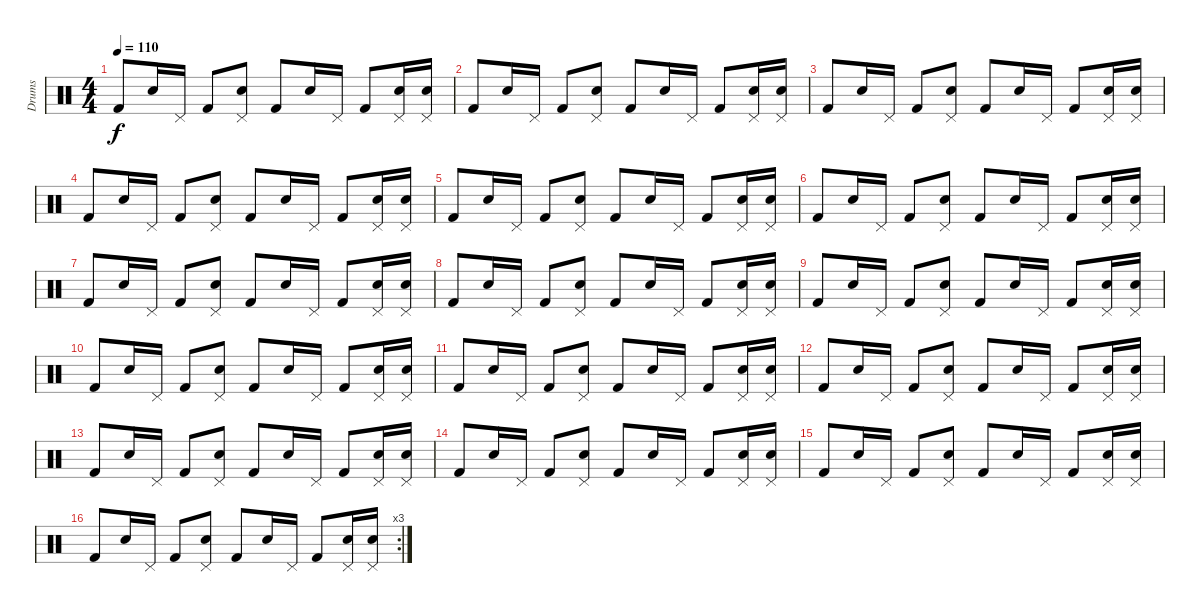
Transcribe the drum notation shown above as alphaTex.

\track ("Drums" "Drums") {instrument percussion}
\staff {score}
\articulation defaults
\ts (4 4)
\tempo 110
\clef neutral
\ks c "Kick (hit) 2".8{dy f} "Snare (hit) 2".16 "Pedal Hi-Hat (hit)".16 "Kick (hit) 2".8
("Pedal Hi-Hat (hit)" "Snare (hit) 2").8 "Kick (hit) 2".8 "Snare (hit) 2".16 "Pedal Hi-Hat (hit)".16 "Kick (hit) 2".8 ("Pedal Hi-Hat (hit)" "Snare (hit) 2").16 ("Pedal Hi-Hat (hit)" "Snare (hit) 2").16 |
"Kick (hit) 2".8 "Snare (hit) 2".16 "Pedal Hi-Hat (hit)".16 "Kick (hit) 2".8 ("Pedal Hi-Hat (hit)" "Snare (hit) 2").8 "Kick (hit) 2".8 "Snare (hit) 2".16 "Pedal Hi-Hat (hit)".16 "Kick (hit) 2".8 ("Pedal Hi-Hat (hit)" "Snare (hit) 2").16 ("Pedal Hi-Hat (hit)" "Snare (hit) 2").16 |
"Kick (hit) 2".8 "Snare (hit) 2".16 "Pedal Hi-Hat (hit)".16 "Kick (hit) 2".8 ("Pedal Hi-Hat (hit)" "Snare (hit) 2").8 "Kick (hit) 2".8 "Snare (hit) 2".16 "Pedal Hi-Hat (hit)".16 "Kick (hit) 2".8 ("Pedal Hi-Hat (hit)" "Snare (hit) 2").16 ("Pedal Hi-Hat (hit)" "Snare (hit) 2").16 |
"Kick (hit) 2".8 "Snare (hit) 2".16 "Pedal Hi-Hat (hit)".16 "Kick (hit) 2".8 ("Pedal Hi-Hat (hit)" "Snare (hit) 2").8 "Kick (hit) 2".8 "Snare (hit) 2".16 "Pedal Hi-Hat (hit)".16 "Kick (hit) 2".8 ("Pedal Hi-Hat (hit)" "Snare (hit) 2").16 ("Pedal Hi-Hat (hit)" "Snare (hit) 2").16 |
"Kick (hit) 2".8 "Snare (hit) 2".16 "Pedal Hi-Hat (hit)".16 "Kick (hit) 2".8 ("Pedal Hi-Hat (hit)" "Snare (hit) 2").8 "Kick (hit) 2".8 "Snare (hit) 2".16 "Pedal Hi-Hat (hit)".16 "Kick (hit) 2".8 ("Pedal Hi-Hat (hit)" "Snare (hit) 2").16 ("Pedal Hi-Hat (hit)" "Snare (hit) 2").16 |
"Kick (hit) 2".8 "Snare (hit) 2".16 "Pedal Hi-Hat (hit)".16 "Kick (hit) 2".8 ("Pedal Hi-Hat (hit)" "Snare (hit) 2").8 "Kick (hit) 2".8 "Snare (hit) 2".16 "Pedal Hi-Hat (hit)".16 "Kick (hit) 2".8 ("Pedal Hi-Hat (hit)" "Snare (hit) 2").16 ("Pedal Hi-Hat (hit)" "Snare (hit) 2").16 |
"Kick (hit) 2".8 "Snare (hit) 2".16 "Pedal Hi-Hat (hit)".16 "Kick (hit) 2".8 ("Pedal Hi-Hat (hit)" "Snare (hit) 2").8 "Kick (hit) 2".8 "Snare (hit) 2".16 "Pedal Hi-Hat (hit)".16 "Kick (hit) 2".8 ("Pedal Hi-Hat (hit)" "Snare (hit) 2").16 ("Pedal Hi-Hat (hit)" "Snare (hit) 2").16 |
"Kick (hit) 2".8 "Snare (hit) 2".16 "Pedal Hi-Hat (hit)".16 "Kick (hit) 2".8 ("Pedal Hi-Hat (hit)" "Snare (hit) 2").8 "Kick (hit) 2".8 "Snare (hit) 2".16 "Pedal Hi-Hat (hit)".16 "Kick (hit) 2".8 ("Pedal Hi-Hat (hit)" "Snare (hit) 2").16 ("Pedal Hi-Hat (hit)" "Snare (hit) 2").16 |
"Kick (hit) 2".8 "Snare (hit) 2".16 "Pedal Hi-Hat (hit)".16 "Kick (hit) 2".8 ("Pedal Hi-Hat (hit)" "Snare (hit) 2").8 "Kick (hit) 2".8 "Snare (hit) 2".16 "Pedal Hi-Hat (hit)".16 "Kick (hit) 2".8 ("Pedal Hi-Hat (hit)" "Snare (hit) 2").16 ("Pedal Hi-Hat (hit)" "Snare (hit) 2").16 |
"Kick (hit) 2".8 "Snare (hit) 2".16 "Pedal Hi-Hat (hit)".16 "Kick (hit) 2".8 ("Pedal Hi-Hat (hit)" "Snare (hit) 2").8 "Kick (hit) 2".8 "Snare (hit) 2".16 "Pedal Hi-Hat (hit)".16 "Kick (hit) 2".8 ("Pedal Hi-Hat (hit)" "Snare (hit) 2").16 ("Pedal Hi-Hat (hit)" "Snare (hit) 2").16 |
"Kick (hit) 2".8 "Snare (hit) 2".16 "Pedal Hi-Hat (hit)".16 "Kick (hit) 2".8 ("Pedal Hi-Hat (hit)" "Snare (hit) 2").8 "Kick (hit) 2".8 "Snare (hit) 2".16 "Pedal Hi-Hat (hit)".16 "Kick (hit) 2".8 ("Pedal Hi-Hat (hit)" "Snare (hit) 2").16 ("Pedal Hi-Hat (hit)" "Snare (hit) 2").16 |
"Kick (hit) 2".8 "Snare (hit) 2".16 "Pedal Hi-Hat (hit)".16 "Kick (hit) 2".8 ("Pedal Hi-Hat (hit)" "Snare (hit) 2").8 "Kick (hit) 2".8 "Snare (hit) 2".16 "Pedal Hi-Hat (hit)".16 "Kick (hit) 2".8 ("Pedal Hi-Hat (hit)" "Snare (hit) 2").16 ("Pedal Hi-Hat (hit)" "Snare (hit) 2").16 |
"Kick (hit) 2".8 "Snare (hit) 2".16 "Pedal Hi-Hat (hit)".16 "Kick (hit) 2".8 ("Pedal Hi-Hat (hit)" "Snare (hit) 2").8 "Kick (hit) 2".8 "Snare (hit) 2".16 "Pedal Hi-Hat (hit)".16 "Kick (hit) 2".8 ("Pedal Hi-Hat (hit)" "Snare (hit) 2").16 ("Pedal Hi-Hat (hit)" "Snare (hit) 2").16 |
"Kick (hit) 2".8 "Snare (hit) 2".16 "Pedal Hi-Hat (hit)".16 "Kick (hit) 2".8 ("Pedal Hi-Hat (hit)" "Snare (hit) 2").8 "Kick (hit) 2".8 "Snare (hit) 2".16 "Pedal Hi-Hat (hit)".16 "Kick (hit) 2".8 ("Pedal Hi-Hat (hit)" "Snare (hit) 2").16 ("Pedal Hi-Hat (hit)" "Snare (hit) 2").16 |
"Kick (hit) 2".8 "Snare (hit) 2".16 "Pedal Hi-Hat (hit)".16 "Kick (hit) 2".8 ("Pedal Hi-Hat (hit)" "Snare (hit) 2").8 "Kick (hit) 2".8 "Snare (hit) 2".16 "Pedal Hi-Hat (hit)".16 "Kick (hit) 2".8 ("Pedal Hi-Hat (hit)" "Snare (hit) 2").16 ("Pedal Hi-Hat (hit)" "Snare (hit) 2").16 |
\rc 3 "Kick (hit) 2".8 "Snare (hit) 2".16 "Pedal Hi-Hat (hit)".16 "Kick (hit) 2".8
("Pedal Hi-Hat (hit)" "Snare (hit) 2").8 "Kick (hit) 2".8 "Snare (hit) 2".16 "Pedal Hi-Hat (hit)".16 "Kick (hit) 2".8 ("Pedal Hi-Hat (hit)" "Snare (hit) 2").16 ("Pedal Hi-Hat (hit)" "Snare (hit) 2").16
